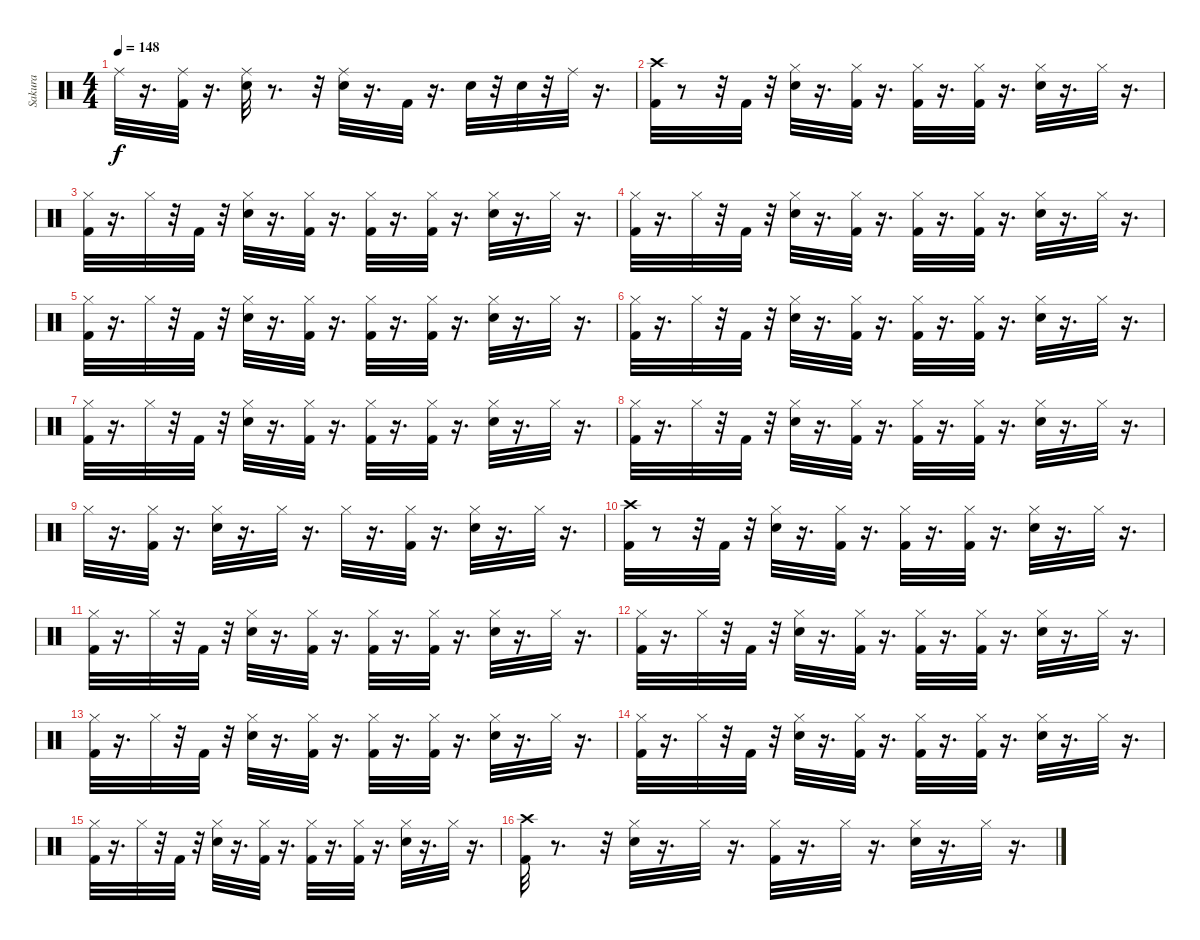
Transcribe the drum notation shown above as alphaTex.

\track ("Sakura" "Sakura") {instrument percussion}
\staff {score}
\articulation defaults
\ts (4 4)
\tempo 148
\clef neutral
\ks c "Ride (middle)".32{dy f}
r.16{d} ("Ride (middle)" "Kick (hit) 2").32 r.16{d} ("Snare (hit) 2" "Ride (middle)").32 r.8{d} r.32 ("Ride (middle)" "Snare (hit) 2").32 r.16{d} "Kick (hit) 2".32 r.16{d} "Snare (hit) 2".32 r.32 "Snare (hit) 2".32 r.32 "Ride (middle)".32 r.16{d} |
("Crash high (hit)" "Kick (hit) 2").32 r.8 r.32 "Kick (hit) 2".32 r.32 ("Hi-Hat (closed)" "Snare (hit) 2").32 r.16{d} ("Hi-Hat (closed)" "Kick (hit) 2").32 r.16{d} ("Hi-Hat (closed)" "Kick (hit) 2").32 r.16{d} ("Hi-Hat (closed)" "Kick (hit) 2").32 r.16{d} ("Hi-Hat (closed)" "Snare (hit) 2").32 r.16{d} "Hi-Hat (closed)".32 r.16{d} |
("Kick (hit) 2" "Hi-Hat (closed)").32 r.16{d} "Hi-Hat (closed)".32 r.32 "Kick (hit) 2".32 r.32 ("Hi-Hat (closed)" "Snare (hit) 2").32 r.16{d} ("Hi-Hat (closed)" "Kick (hit) 2").32 r.16{d} ("Hi-Hat (closed)" "Kick (hit) 2").32 r.16{d} ("Hi-Hat (closed)" "Kick (hit) 2").32 r.16{d} ("Hi-Hat (closed)" "Snare (hit) 2").32 r.16{d} "Hi-Hat (closed)".32 r.16{d} |
("Kick (hit) 2" "Hi-Hat (closed)").32 r.16{d} "Hi-Hat (closed)".32 r.32 "Kick (hit) 2".32 r.32 ("Hi-Hat (closed)" "Snare (hit) 2").32 r.16{d} ("Hi-Hat (closed)" "Kick (hit) 2").32 r.16{d} ("Hi-Hat (closed)" "Kick (hit) 2").32 r.16{d} ("Hi-Hat (closed)" "Kick (hit) 2").32 r.16{d} ("Hi-Hat (closed)" "Snare (hit) 2").32 r.16{d} "Hi-Hat (closed)".32 r.16{d} |
("Kick (hit) 2" "Hi-Hat (closed)").32 r.16{d} "Hi-Hat (closed)".32 r.32 "Kick (hit) 2".32 r.32 ("Hi-Hat (closed)" "Snare (hit) 2").32 r.16{d} ("Hi-Hat (closed)" "Kick (hit) 2").32 r.16{d} ("Hi-Hat (closed)" "Kick (hit) 2").32 r.16{d} ("Hi-Hat (closed)" "Kick (hit) 2").32 r.16{d} ("Hi-Hat (closed)" "Snare (hit) 2").32 r.16{d} "Hi-Hat (closed)".32 r.16{d} |
("Kick (hit) 2" "Hi-Hat (closed)").32 r.16{d} "Hi-Hat (closed)".32 r.32 "Kick (hit) 2".32 r.32 ("Hi-Hat (closed)" "Snare (hit) 2").32 r.16{d} ("Hi-Hat (closed)" "Kick (hit) 2").32 r.16{d} ("Hi-Hat (closed)" "Kick (hit) 2").32 r.16{d} ("Hi-Hat (closed)" "Kick (hit) 2").32 r.16{d} ("Hi-Hat (closed)" "Snare (hit) 2").32 r.16{d} "Hi-Hat (closed)".32 r.16{d} |
("Kick (hit) 2" "Hi-Hat (closed)").32 r.16{d} "Hi-Hat (closed)".32 r.32 "Kick (hit) 2".32 r.32 ("Hi-Hat (closed)" "Snare (hit) 2").32 r.16{d} ("Hi-Hat (closed)" "Kick (hit) 2").32 r.16{d} ("Hi-Hat (closed)" "Kick (hit) 2").32 r.16{d} ("Hi-Hat (closed)" "Kick (hit) 2").32 r.16{d} ("Hi-Hat (closed)" "Snare (hit) 2").32 r.16{d} "Hi-Hat (closed)".32 r.16{d} |
("Kick (hit) 2" "Hi-Hat (closed)").32 r.16{d} "Hi-Hat (closed)".32 r.32 "Kick (hit) 2".32 r.32 ("Hi-Hat (closed)" "Snare (hit) 2").32 r.16{d} ("Hi-Hat (closed)" "Kick (hit) 2").32 r.16{d} ("Hi-Hat (closed)" "Kick (hit) 2").32 r.16{d} ("Hi-Hat (closed)" "Kick (hit) 2").32 r.16{d} ("Hi-Hat (closed)" "Snare (hit) 2").32 r.16{d} "Hi-Hat (closed)".32 r.16{d} |
"Hi-Hat (closed)".32 r.16{d} ("Hi-Hat (closed)" "Kick (hit) 2").32 r.16{d} ("Hi-Hat (closed)" "Snare (hit) 2").32 r.16{d} "Hi-Hat (closed)".32 r.16{d} "Hi-Hat (closed)".32 r.16{d} ("Hi-Hat (closed)" "Kick (hit) 2").32 r.16{d} ("Hi-Hat (closed)" "Snare (hit) 2").32 r.16{d} "Hi-Hat (closed)".32 r.16{d} |
("Crash high (hit)" "Kick (hit) 2").32 r.8 r.32 "Kick (hit) 2".32 r.32 ("Hi-Hat (closed)" "Snare (hit) 2").32 r.16{d} ("Hi-Hat (closed)" "Kick (hit) 2").32 r.16{d} ("Hi-Hat (closed)" "Kick (hit) 2").32 r.16{d} ("Hi-Hat (closed)" "Kick (hit) 2").32 r.16{d} ("Hi-Hat (closed)" "Snare (hit) 2").32 r.16{d} "Hi-Hat (closed)".32 r.16{d} |
("Kick (hit) 2" "Hi-Hat (closed)").32 r.16{d} "Hi-Hat (closed)".32 r.32 "Kick (hit) 2".32 r.32 ("Hi-Hat (closed)" "Snare (hit) 2").32 r.16{d} ("Hi-Hat (closed)" "Kick (hit) 2").32 r.16{d} ("Hi-Hat (closed)" "Kick (hit) 2").32 r.16{d} ("Hi-Hat (closed)" "Kick (hit) 2").32 r.16{d} ("Hi-Hat (closed)" "Snare (hit) 2").32 r.16{d} "Hi-Hat (closed)".32 r.16{d} |
("Kick (hit) 2" "Hi-Hat (closed)").32 r.16{d} "Hi-Hat (closed)".32 r.32 "Kick (hit) 2".32 r.32 ("Hi-Hat (closed)" "Snare (hit) 2").32 r.16{d} ("Hi-Hat (closed)" "Kick (hit) 2").32 r.16{d} ("Hi-Hat (closed)" "Kick (hit) 2").32 r.16{d} ("Hi-Hat (closed)" "Kick (hit) 2").32 r.16{d} ("Hi-Hat (closed)" "Snare (hit) 2").32 r.16{d} "Hi-Hat (closed)".32 r.16{d} |
("Kick (hit) 2" "Hi-Hat (closed)").32 r.16{d} "Hi-Hat (closed)".32 r.32 "Kick (hit) 2".32 r.32 ("Hi-Hat (closed)" "Snare (hit) 2").32 r.16{d} ("Hi-Hat (closed)" "Kick (hit) 2").32 r.16{d} ("Hi-Hat (closed)" "Kick (hit) 2").32 r.16{d} ("Hi-Hat (closed)" "Kick (hit) 2").32 r.16{d} ("Hi-Hat (closed)" "Snare (hit) 2").32 r.16{d} "Hi-Hat (closed)".32 r.16{d} |
("Kick (hit) 2" "Hi-Hat (closed)").32 r.16{d} "Hi-Hat (closed)".32 r.32 "Kick (hit) 2".32 r.32 ("Hi-Hat (closed)" "Snare (hit) 2").32 r.16{d} ("Hi-Hat (closed)" "Kick (hit) 2").32 r.16{d} ("Hi-Hat (closed)" "Kick (hit) 2").32 r.16{d} ("Hi-Hat (closed)" "Kick (hit) 2").32 r.16{d} ("Hi-Hat (closed)" "Snare (hit) 2").32 r.16{d} "Hi-Hat (closed)".32 r.16{d} |
("Kick (hit) 2" "Hi-Hat (closed)").32 r.16{d} "Hi-Hat (closed)".32 r.32 "Kick (hit) 2".32 r.32 ("Hi-Hat (closed)" "Snare (hit) 2").32 r.16{d} ("Hi-Hat (closed)" "Kick (hit) 2").32 r.16{d} ("Hi-Hat (closed)" "Kick (hit) 2").32 r.16{d} ("Hi-Hat (closed)" "Kick (hit) 2").32 r.16{d} ("Hi-Hat (closed)" "Snare (hit) 2").32 r.16{d} "Hi-Hat (closed)".32 r.16{d} |
("Crash high (hit)" "Kick (hit) 2").32 r.8{d} r.32 ("Hi-Hat (closed)" "Snare (hit) 2").32 r.16{d} "Hi-Hat (closed)".32 r.16{d} ("Kick (hit) 2" "Hi-Hat (closed)").32 r.16{d} "Hi-Hat (closed)".32 r.16{d} ("Hi-Hat (closed)" "Snare (hit) 2").32 r.16{d} "Hi-Hat (closed)".32 r.16{d}
